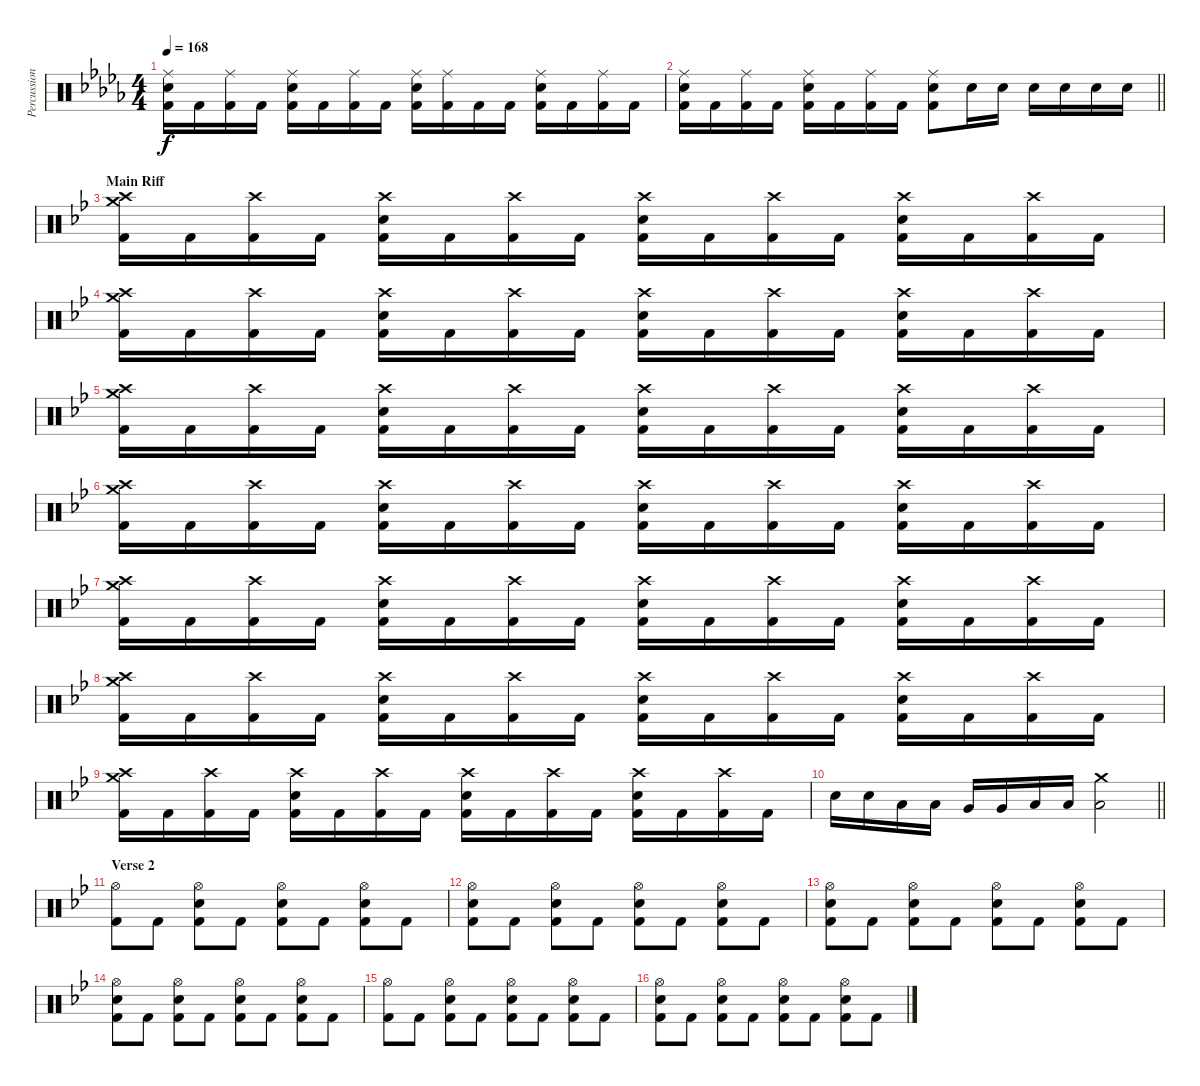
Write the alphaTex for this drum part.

\track ("Percussion" "Percussion") {instrument percussion}
\staff {score}
\articulation defaults
\ts (4 4)
\tempo 168
\clef neutral
\ks db
("Ride (middle)" "Snare (hit) 2" "Kick (hit) 2").16{dy f} "Kick (hit) 2".16 ("Ride (middle)" "Kick (hit) 2").16 "Kick (hit) 2".16 ("Ride (middle)" "Snare (hit) 2" "Kick (hit) 2").16 "Kick (hit) 2".16 ("Ride (middle)" "Kick (hit) 2").16 "Kick (hit) 2".16 ("Ride (middle)" "Snare (hit) 2" "Kick (hit) 2").16 ("Ride (middle)" "Kick (hit) 2").16 "Kick (hit) 2".16 "Kick (hit) 2".16 ("Ride (middle)" "Snare (hit) 2" "Kick (hit) 2").16 "Kick (hit) 2".16 ("Ride (middle)" "Kick (hit) 2").16 "Kick (hit) 2".16 |
\barLineRight lightlight
("Ride (middle)" "Snare (hit) 2" "Kick (hit) 2").16 "Kick (hit) 2".16 ("Ride (middle)" "Kick (hit) 2").16 "Kick (hit) 2".16 ("Ride (middle)" "Snare (hit) 2" "Kick (hit) 2").16 "Kick (hit) 2".16 ("Ride (middle)" "Kick (hit) 2").16 "Kick (hit) 2".16 ("Ride (middle)" "Snare (hit) 2" "Kick (hit) 2").8 "Snare (hit) 2".16 "Snare (hit) 2".16 "Snare (hit) 2".16 "Snare (hit) 2".16 "Snare (hit) 2".16 "Snare (hit) 2".16 |
\section ("" "Main Riff")
\ks bb
("Crash high (hit)" "Crash medium (hit)" "Kick (hit) 2").16 "Kick (hit) 2".16 ("Crash high (hit)" "Kick (hit) 2").16 "Kick (hit) 2".16 ("Crash high (hit)" "Snare (hit) 2" "Kick (hit) 2").16 "Kick (hit) 2".16 ("Crash high (hit)" "Kick (hit) 2").16 "Kick (hit) 2".16 ("Crash high (hit)" "Snare (hit) 2" "Kick (hit) 2").16 "Kick (hit) 2".16 ("Crash high (hit)" "Kick (hit) 2").16 "Kick (hit) 2".16 ("Crash high (hit)" "Snare (hit) 2" "Kick (hit) 2").16 "Kick (hit) 2".16 ("Crash high (hit)" "Kick (hit) 2").16 "Kick (hit) 2".16 |
("Crash high (hit)" "Crash medium (hit)" "Kick (hit) 2").16 "Kick (hit) 2".16 ("Crash high (hit)" "Kick (hit) 2").16 "Kick (hit) 2".16 ("Crash high (hit)" "Snare (hit) 2" "Kick (hit) 2").16 "Kick (hit) 2".16 ("Crash high (hit)" "Kick (hit) 2").16 "Kick (hit) 2".16 ("Crash high (hit)" "Snare (hit) 2" "Kick (hit) 2").16 "Kick (hit) 2".16 ("Crash high (hit)" "Kick (hit) 2").16 "Kick (hit) 2".16 ("Crash high (hit)" "Snare (hit) 2" "Kick (hit) 2").16 "Kick (hit) 2".16 ("Crash high (hit)" "Kick (hit) 2").16 "Kick (hit) 2".16 |
("Crash high (hit)" "Crash medium (hit)" "Kick (hit) 2").16 "Kick (hit) 2".16 ("Crash high (hit)" "Kick (hit) 2").16 "Kick (hit) 2".16 ("Crash high (hit)" "Snare (hit) 2" "Kick (hit) 2").16 "Kick (hit) 2".16 ("Crash high (hit)" "Kick (hit) 2").16 "Kick (hit) 2".16 ("Crash high (hit)" "Snare (hit) 2" "Kick (hit) 2").16 "Kick (hit) 2".16 ("Crash high (hit)" "Kick (hit) 2").16 "Kick (hit) 2".16 ("Crash high (hit)" "Snare (hit) 2" "Kick (hit) 2").16 "Kick (hit) 2".16 ("Crash high (hit)" "Kick (hit) 2").16 "Kick (hit) 2".16 |
("Crash high (hit)" "Crash medium (hit)" "Kick (hit) 2").16 "Kick (hit) 2".16 ("Crash high (hit)" "Kick (hit) 2").16 "Kick (hit) 2".16 ("Crash high (hit)" "Snare (hit) 2" "Kick (hit) 2").16 "Kick (hit) 2".16 ("Crash high (hit)" "Kick (hit) 2").16 "Kick (hit) 2".16 ("Crash high (hit)" "Snare (hit) 2" "Kick (hit) 2").16 "Kick (hit) 2".16 ("Crash high (hit)" "Kick (hit) 2").16 "Kick (hit) 2".16 ("Crash high (hit)" "Snare (hit) 2" "Kick (hit) 2").16 "Kick (hit) 2".16 ("Crash high (hit)" "Kick (hit) 2").16 "Kick (hit) 2".16 |
("Crash high (hit)" "Crash medium (hit)" "Kick (hit) 2").16 "Kick (hit) 2".16 ("Crash high (hit)" "Kick (hit) 2").16 "Kick (hit) 2".16 ("Crash high (hit)" "Snare (hit) 2" "Kick (hit) 2").16 "Kick (hit) 2".16 ("Crash high (hit)" "Kick (hit) 2").16 "Kick (hit) 2".16 ("Crash high (hit)" "Snare (hit) 2" "Kick (hit) 2").16 "Kick (hit) 2".16 ("Crash high (hit)" "Kick (hit) 2").16 "Kick (hit) 2".16 ("Crash high (hit)" "Snare (hit) 2" "Kick (hit) 2").16 "Kick (hit) 2".16 ("Crash high (hit)" "Kick (hit) 2").16 "Kick (hit) 2".16 |
("Crash high (hit)" "Crash medium (hit)" "Kick (hit) 2").16 "Kick (hit) 2".16 ("Crash high (hit)" "Kick (hit) 2").16 "Kick (hit) 2".16 ("Crash high (hit)" "Snare (hit) 2" "Kick (hit) 2").16 "Kick (hit) 2".16 ("Crash high (hit)" "Kick (hit) 2").16 "Kick (hit) 2".16 ("Crash high (hit)" "Snare (hit) 2" "Kick (hit) 2").16 "Kick (hit) 2".16 ("Crash high (hit)" "Kick (hit) 2").16 "Kick (hit) 2".16 ("Crash high (hit)" "Snare (hit) 2" "Kick (hit) 2").16 "Kick (hit) 2".16 ("Crash high (hit)" "Kick (hit) 2").16 "Kick (hit) 2".16 |
("Crash high (hit)" "Crash medium (hit)" "Kick (hit) 2").16 "Kick (hit) 2".16 ("Crash high (hit)" "Kick (hit) 2").16 "Kick (hit) 2".16 ("Crash high (hit)" "Snare (hit) 2" "Kick (hit) 2").16 "Kick (hit) 2".16 ("Crash high (hit)" "Kick (hit) 2").16 "Kick (hit) 2".16 ("Crash high (hit)" "Snare (hit) 2" "Kick (hit) 2").16 "Kick (hit) 2".16 ("Crash high (hit)" "Kick (hit) 2").16 "Kick (hit) 2".16 ("Crash high (hit)" "Snare (hit) 2" "Kick (hit) 2").16 "Kick (hit) 2".16 ("Crash high (hit)" "Kick (hit) 2").16 "Kick (hit) 2".16 |
\barLineRight lightlight "Snare (hit) 2".16 "Snare (hit) 2".16 "Low Tom (hit)".16 "Low Tom (hit)".16 "Very Low Tom (hit)".16 "Very Low Tom (hit)".16 "Low Floor Tom (hit)".16 "Low Floor Tom (hit)".16
("Crash medium (hit)" "Low Tom (hit)").2 |
\section ("" "Verse 2")
("Hi-Hat (open)" "Kick (hit) 2").8 "Kick (hit) 2".8 ("Hi-Hat (open)" "Snare (hit) 2" "Kick (hit) 2").8 "Kick (hit) 2".8 ("Hi-Hat (open)" "Snare (hit) 2" "Kick (hit) 2").8 "Kick (hit) 2".8 ("Hi-Hat (open)" "Snare (hit) 2" "Kick (hit) 2").8 "Kick (hit) 2".8 |
("Hi-Hat (open)" "Snare (hit) 2" "Kick (hit) 2").8 "Kick (hit) 2".8 ("Hi-Hat (open)" "Snare (hit) 2" "Kick (hit) 2").8 "Kick (hit) 2".8 ("Hi-Hat (open)" "Snare (hit) 2" "Kick (hit) 2").8 "Kick (hit) 2".8 ("Hi-Hat (open)" "Snare (hit) 2" "Kick (hit) 2").8 "Kick (hit) 2".8 |
("Hi-Hat (open)" "Snare (hit) 2" "Kick (hit) 2").8 "Kick (hit) 2".8 ("Hi-Hat (open)" "Snare (hit) 2" "Kick (hit) 2").8 "Kick (hit) 2".8 ("Hi-Hat (open)" "Snare (hit) 2" "Kick (hit) 2").8 "Kick (hit) 2".8 ("Hi-Hat (open)" "Snare (hit) 2" "Kick (hit) 2").8 "Kick (hit) 2".8 |
("Hi-Hat (open)" "Snare (hit) 2" "Kick (hit) 2").8 "Kick (hit) 2".8 ("Hi-Hat (open)" "Snare (hit) 2" "Kick (hit) 2").8 "Kick (hit) 2".8 ("Hi-Hat (open)" "Snare (hit) 2" "Kick (hit) 2").8 "Kick (hit) 2".8 ("Hi-Hat (open)" "Snare (hit) 2" "Kick (hit) 2").8 "Kick (hit) 2".8 |
("Hi-Hat (open)" "Kick (hit) 2").8 "Kick (hit) 2".8 ("Hi-Hat (open)" "Snare (hit) 2" "Kick (hit) 2").8 "Kick (hit) 2".8 ("Hi-Hat (open)" "Snare (hit) 2" "Kick (hit) 2").8 "Kick (hit) 2".8 ("Hi-Hat (open)" "Snare (hit) 2" "Kick (hit) 2").8 "Kick (hit) 2".8 |
("Hi-Hat (open)" "Snare (hit) 2" "Kick (hit) 2").8 "Kick (hit) 2".8 ("Hi-Hat (open)" "Snare (hit) 2" "Kick (hit) 2").8 "Kick (hit) 2".8 ("Hi-Hat (open)" "Snare (hit) 2" "Kick (hit) 2").8 "Kick (hit) 2".8 ("Hi-Hat (open)" "Snare (hit) 2" "Kick (hit) 2").8 "Kick (hit) 2".8
